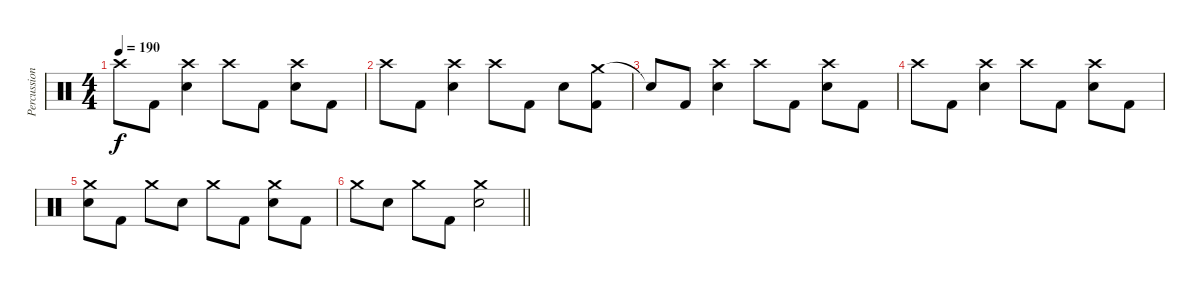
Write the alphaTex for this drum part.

\track ("Percussion" "Percussion") {instrument percussion}
\staff {score}
\articulation defaults
\ts (4 4)
\tempo 190
\clef neutral
\ks c "Crash high (hit)".8{dy f} "Kick (hit) 2".8
("Crash high (hit)" "Electric Snare (hit)").4 "Crash high (hit)".8 "Kick (hit) 2".8 ("Crash high (hit)" "Electric Snare (hit)").8 "Kick (hit) 2".8 |
"Crash high (hit)".8 "Kick (hit) 2".8 ("Crash high (hit)" "Electric Snare (hit)").4 "Crash high (hit)".8 "Kick (hit) 2".8 "Electric Snare (hit)".8 ("Crash medium (hit)" "Kick (hit) 2").8 |
"Snare (hit)"{t}.8 "Kick (hit) 2".8 ("Crash high (hit)" "Electric Snare (hit)").4 "Crash high (hit)".8 "Kick (hit) 2".8 ("Crash high (hit)" "Electric Snare (hit)").8 "Kick (hit) 2".8 |
"Crash high (hit)".8 "Kick (hit) 2".8 ("Crash high (hit)" "Electric Snare (hit)").4 "Crash high (hit)".8 "Kick (hit) 2".8 ("Crash high (hit)" "Electric Snare (hit)").8 "Kick (hit) 2".8 |
("Crash medium (hit)" "Electric Snare (hit)").8 "Kick (hit) 2".8 "Crash medium (hit)".8 "Electric Snare (hit)".8 "Crash medium (hit)".8 "Kick (hit) 2".8 ("Crash medium (hit)" "Electric Snare (hit)").8 "Kick (hit) 2".8 |
\barLineRight lightlight "Crash medium (hit)".8 "Electric Snare (hit)".8 "Crash medium (hit)".8 "Kick (hit) 2".8
("Crash medium (hit)" "Electric Snare (hit)").2
